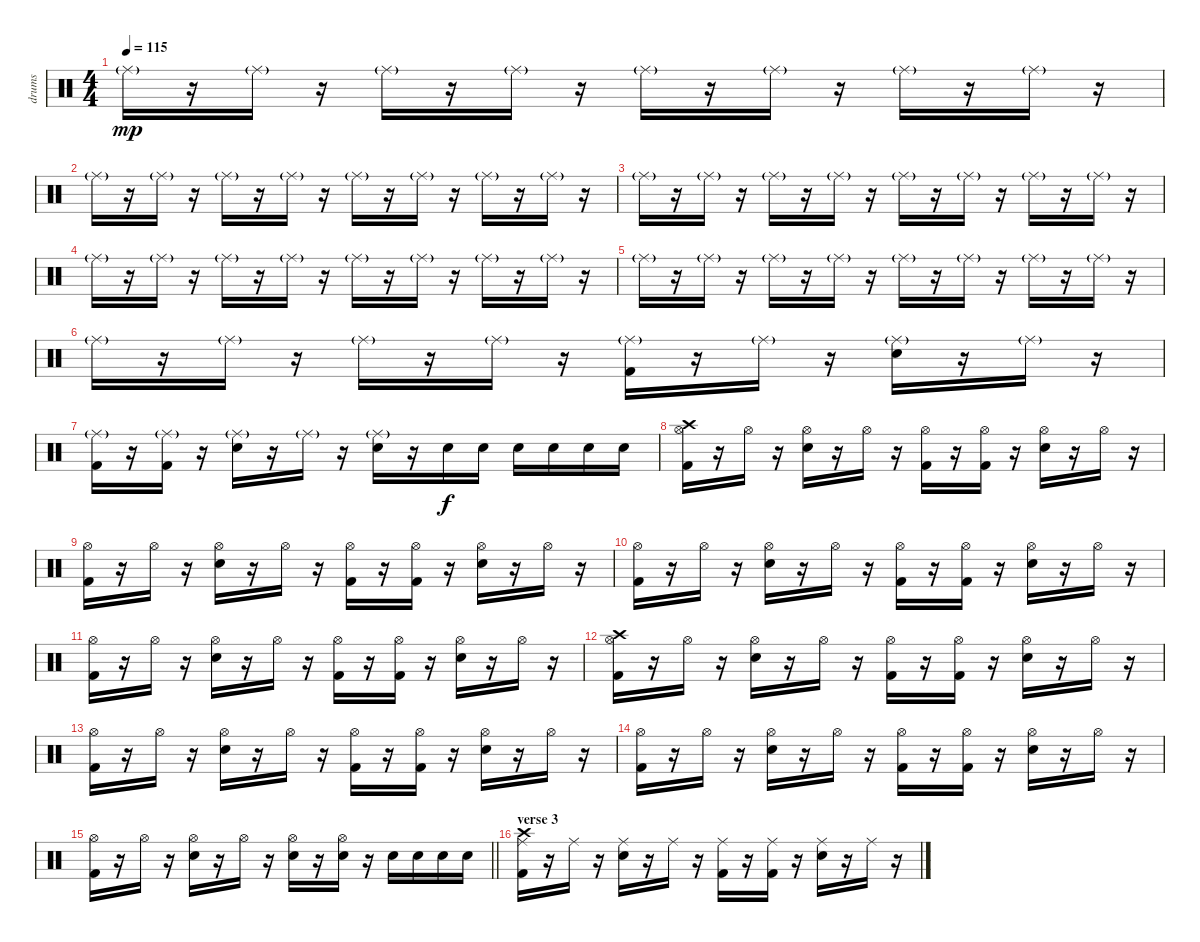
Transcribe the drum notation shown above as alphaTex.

\track ("drums" "drums") {instrument percussion}
\staff {score}
\articulation defaults
\ts (4 4)
\tempo 115
\clef neutral
\ks c "Ride (middle)"{g}.16{dy mp}
r.16 "Ride (middle)"{g}.16 r.16 "Ride (middle)"{g}.16 r.16 "Ride (middle)"{g}.16 r.16 "Ride (middle)"{g}.16 r.16 "Ride (middle)"{g}.16 r.16 "Ride (middle)"{g}.16 r.16 "Ride (middle)"{g}.16 r.16 |
"Ride (middle)"{g}.16 r.16 "Ride (middle)"{g}.16 r.16 "Ride (middle)"{g}.16 r.16 "Ride (middle)"{g}.16 r.16 "Ride (middle)"{g}.16 r.16 "Ride (middle)"{g}.16 r.16 "Ride (middle)"{g}.16 r.16 "Ride (middle)"{g}.16 r.16 |
"Ride (middle)"{g}.16 r.16 "Ride (middle)"{g}.16 r.16 "Ride (middle)"{g}.16 r.16 "Ride (middle)"{g}.16 r.16 "Ride (middle)"{g}.16 r.16 "Ride (middle)"{g}.16 r.16 "Ride (middle)"{g}.16 r.16 "Ride (middle)"{g}.16 r.16 |
"Ride (middle)"{g}.16 r.16 "Ride (middle)"{g}.16 r.16 "Ride (middle)"{g}.16 r.16 "Ride (middle)"{g}.16 r.16 "Ride (middle)"{g}.16 r.16 "Ride (middle)"{g}.16 r.16 "Ride (middle)"{g}.16 r.16 "Ride (middle)"{g}.16 r.16 |
"Ride (middle)"{g}.16 r.16 "Ride (middle)"{g}.16 r.16 "Ride (middle)"{g}.16 r.16 "Ride (middle)"{g}.16 r.16 "Ride (middle)"{g}.16 r.16 "Ride (middle)"{g}.16 r.16 "Ride (middle)"{g}.16 r.16 "Ride (middle)"{g}.16 r.16 |
"Ride (middle)"{g}.16 r.16 "Ride (middle)"{g}.16 r.16 "Ride (middle)"{g}.16 r.16 "Ride (middle)"{g}.16 r.16 ("Kick (hit) 2" "Ride (middle)"{g}).16 r.16 "Ride (middle)"{g}.16 r.16 ("Electric Snare (hit)" "Ride (middle)"{g}).16 r.16 "Ride (middle)"{g}.16 r.16 |
("Kick (hit) 2" "Ride (middle)"{g}).16 r.16 ("Kick (hit) 2" "Ride (middle)"{g}).16 r.16 ("Electric Snare (hit)" "Ride (middle)"{g}).16 r.16 "Ride (middle)"{g}.16 r.16 ("Electric Snare (hit)" "Ride (middle)"{g}).16 r.16 "Electric Snare (hit)".16{dy f} "Electric Snare (hit)".16 "Electric Snare (hit)".16 "Electric Snare (hit)".16 "Electric Snare (hit)".16 "Electric Snare (hit)".16 |
("Kick (hit) 2" "Hi-Hat (open)" "Crash high (hit)").16 r.16 "Hi-Hat (open)".16 r.16 ("Electric Snare (hit)" "Hi-Hat (open)").16 r.16 "Hi-Hat (open)".16 r.16 ("Kick (hit) 2" "Hi-Hat (open)").16 r.16 ("Kick (hit) 2" "Hi-Hat (open)").16 r.16 ("Electric Snare (hit)" "Hi-Hat (open)").16 r.16 "Hi-Hat (open)".16 r.16 |
("Kick (hit) 2" "Hi-Hat (open)").16 r.16 "Hi-Hat (open)".16 r.16 ("Electric Snare (hit)" "Hi-Hat (open)").16 r.16 "Hi-Hat (open)".16 r.16 ("Kick (hit) 2" "Hi-Hat (open)").16 r.16 ("Kick (hit) 2" "Hi-Hat (open)").16 r.16 ("Electric Snare (hit)" "Hi-Hat (open)").16 r.16 "Hi-Hat (open)".16 r.16 |
("Kick (hit) 2" "Hi-Hat (open)").16 r.16 "Hi-Hat (open)".16 r.16 ("Electric Snare (hit)" "Hi-Hat (open)").16 r.16 "Hi-Hat (open)".16 r.16 ("Kick (hit) 2" "Hi-Hat (open)").16 r.16 ("Kick (hit) 2" "Hi-Hat (open)").16 r.16 ("Electric Snare (hit)" "Hi-Hat (open)").16 r.16 "Hi-Hat (open)".16 r.16 |
("Kick (hit) 2" "Hi-Hat (open)").16 r.16 "Hi-Hat (open)".16 r.16 ("Electric Snare (hit)" "Hi-Hat (open)").16 r.16 "Hi-Hat (open)".16 r.16 ("Kick (hit) 2" "Hi-Hat (open)").16 r.16 ("Kick (hit) 2" "Hi-Hat (open)").16 r.16 ("Electric Snare (hit)" "Hi-Hat (open)").16 r.16 "Hi-Hat (open)".16 r.16 |
("Kick (hit) 2" "Hi-Hat (open)" "Crash high (hit)").16 r.16 "Hi-Hat (open)".16 r.16 ("Electric Snare (hit)" "Hi-Hat (open)").16 r.16 "Hi-Hat (open)".16 r.16 ("Kick (hit) 2" "Hi-Hat (open)").16 r.16 ("Kick (hit) 2" "Hi-Hat (open)").16 r.16 ("Electric Snare (hit)" "Hi-Hat (open)").16 r.16 "Hi-Hat (open)".16 r.16 |
("Kick (hit) 2" "Hi-Hat (open)").16 r.16 "Hi-Hat (open)".16 r.16 ("Electric Snare (hit)" "Hi-Hat (open)").16 r.16 "Hi-Hat (open)".16 r.16 ("Kick (hit) 2" "Hi-Hat (open)").16 r.16 ("Kick (hit) 2" "Hi-Hat (open)").16 r.16 ("Electric Snare (hit)" "Hi-Hat (open)").16 r.16 "Hi-Hat (open)".16 r.16 |
("Kick (hit) 2" "Hi-Hat (open)").16 r.16 "Hi-Hat (open)".16 r.16 ("Electric Snare (hit)" "Hi-Hat (open)").16 r.16 "Hi-Hat (open)".16 r.16 ("Kick (hit) 2" "Hi-Hat (open)").16 r.16 ("Kick (hit) 2" "Hi-Hat (open)").16 r.16 ("Electric Snare (hit)" "Hi-Hat (open)").16 r.16 "Hi-Hat (open)".16 r.16 |
\barLineRight lightlight
("Kick (hit) 2" "Hi-Hat (open)").16 r.16 "Hi-Hat (open)".16 r.16 ("Electric Snare (hit)" "Hi-Hat (open)").16 r.16 "Hi-Hat (open)".16 r.16 ("Electric Snare (hit)" "Hi-Hat (open)").16 r.16 ("Electric Snare (hit)" "Hi-Hat (open)").16 r.16 "Electric Snare (hit)".16 "Electric Snare (hit)".16 "Electric Snare (hit)".16 "Electric Snare (hit)".16 |
\section ("" "verse 3")
("Kick (hit) 2" "Ride (middle)" "Crash high (hit)").16 r.16 "Ride (middle)".16 r.16 ("Electric Snare (hit)" "Ride (middle)").16 r.16 "Ride (middle)".16 r.16 ("Kick (hit) 2" "Ride (middle)").16 r.16 ("Kick (hit) 2" "Ride (middle)").16 r.16 ("Electric Snare (hit)" "Ride (middle)").16 r.16 "Ride (middle)".16 r.16
